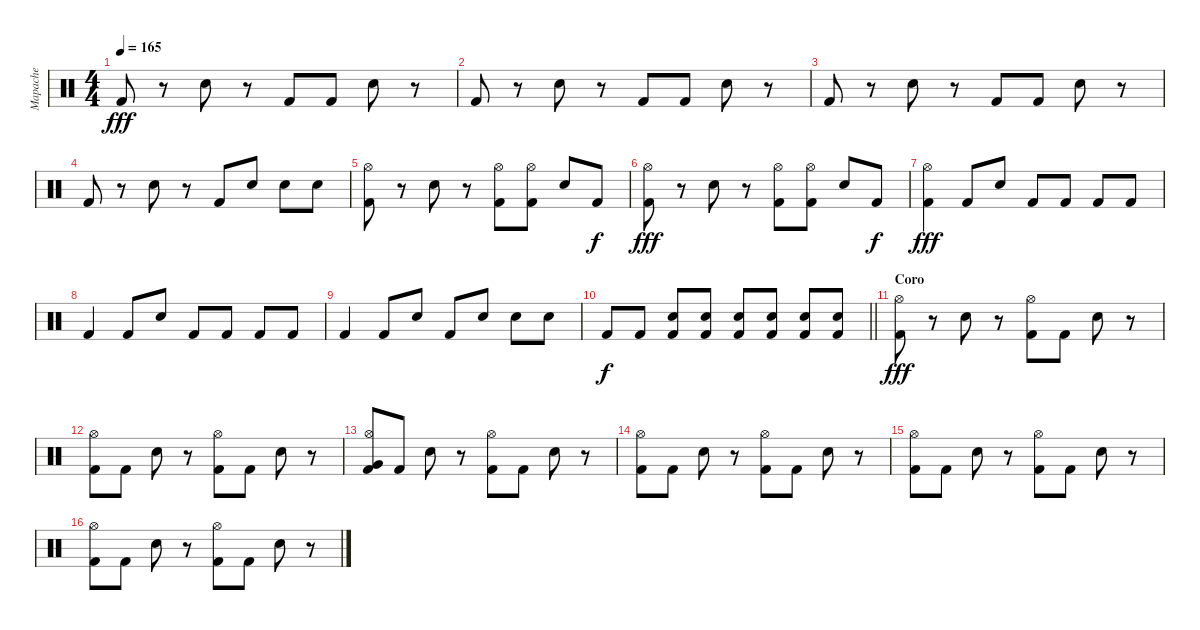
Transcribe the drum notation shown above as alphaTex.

\track ("Mapache" "Mapache") {instrument percussion}
\staff
\articulation defaults
\ts (4 4)
\tempo 165
\clef neutral
\ks c "Kick (hit) 2".8{dy fff}
r.8 "Electric Snare (hit)".8 r.8 "Kick (hit) 2".8 "Kick (hit) 2".8 "Electric Snare (hit)".8 r.8 |
"Kick (hit) 2".8 r.8 "Electric Snare (hit)".8 r.8 "Kick (hit) 2".8 "Kick (hit) 2".8 "Electric Snare (hit)".8 r.8 |
"Kick (hit) 2".8 r.8 "Electric Snare (hit)".8 r.8 "Kick (hit) 2".8 "Kick (hit) 2".8 "Electric Snare (hit)".8 r.8 |
"Kick (hit) 2".8 r.8 "Electric Snare (hit)".8 r.8 "Kick (hit) 2".8 "Electric Snare (hit)".8 "Electric Snare (hit)".8 "Electric Snare (hit)".8 |
("Hi-Hat (open)" "Kick (hit) 2").8 r.8 "Electric Snare (hit)".8 r.8 ("Hi-Hat (open)" "Kick (hit) 2").8 ("Hi-Hat (open)" "Kick (hit) 2").8 "Electric Snare (hit)".8 "Kick (hit) 2".8{dy f} |
("Hi-Hat (open)" "Kick (hit) 2").8{dy fff} r.8 "Electric Snare (hit)".8 r.8 ("Hi-Hat (open)" "Kick (hit) 2").8 ("Hi-Hat (open)" "Kick (hit) 2").8 "Electric Snare (hit)".8 "Kick (hit) 2".8{dy f} |
("Hi-Hat (open)" "Kick (hit) 2").4{dy fff} "Kick (hit) 2".8 "Electric Snare (hit)".8 "Kick (hit) 2".8 "Kick (hit) 2".8 "Kick (hit) 2".8 "Kick (hit) 2".8 |
"Kick (hit) 2".4 "Kick (hit) 2".8 "Electric Snare (hit)".8 "Kick (hit) 2".8 "Kick (hit) 2".8 "Kick (hit) 2".8 "Kick (hit) 2".8 |
"Kick (hit) 2".4 "Kick (hit) 2".8 "Electric Snare (hit)".8 "Kick (hit) 2".8 "Electric Snare (hit)".8 "Electric Snare (hit)".8 "Electric Snare (hit)".8 |
\barLineRight lightlight "Kick (hit) 2".8{dy f} "Kick (hit) 2".8
("Electric Snare (hit)" "Kick (hit) 2").8 ("Electric Snare (hit)" "Kick (hit) 2").8 ("Electric Snare (hit)" "Kick (hit) 2").8 ("Electric Snare (hit)" "Kick (hit) 2").8 ("Electric Snare (hit)" "Kick (hit) 2").8 ("Electric Snare (hit)" "Kick (hit) 2").8 |
\section ("" "Coro")
("Hi-Hat (open)" "Kick (hit) 2").8{dy fff} r.8 "Electric Snare (hit)".8 r.8 ("Hi-Hat (open)" "Kick (hit) 2").8 "Kick (hit) 2".8 "Electric Snare (hit)".8 r.8 |
("Hi-Hat (open)" "Kick (hit) 2").8 "Kick (hit) 2".8 "Electric Snare (hit)".8 r.8 ("Hi-Hat (open)" "Kick (hit) 2").8 "Kick (hit) 2".8 "Electric Snare (hit)".8 r.8 |
("Hi-Hat (open)" "Very Low Tom (hit)" "Kick (hit) 2").8 "Kick (hit) 2".8 "Electric Snare (hit)".8 r.8 ("Hi-Hat (open)" "Kick (hit) 2").8 "Kick (hit) 2".8 "Electric Snare (hit)".8 r.8 |
("Hi-Hat (open)" "Kick (hit) 2").8 "Kick (hit) 2".8 "Electric Snare (hit)".8 r.8 ("Hi-Hat (open)" "Kick (hit) 2").8 "Kick (hit) 2".8 "Electric Snare (hit)".8 r.8 |
("Hi-Hat (open)" "Kick (hit) 2").8 "Kick (hit) 2".8 "Electric Snare (hit)".8 r.8 ("Hi-Hat (open)" "Kick (hit) 2").8 "Kick (hit) 2".8 "Electric Snare (hit)".8 r.8 |
("Hi-Hat (open)" "Kick (hit) 2").8 "Kick (hit) 2".8 "Electric Snare (hit)".8 r.8 ("Hi-Hat (open)" "Kick (hit) 2").8 "Kick (hit) 2".8 "Electric Snare (hit)".8 r.8
